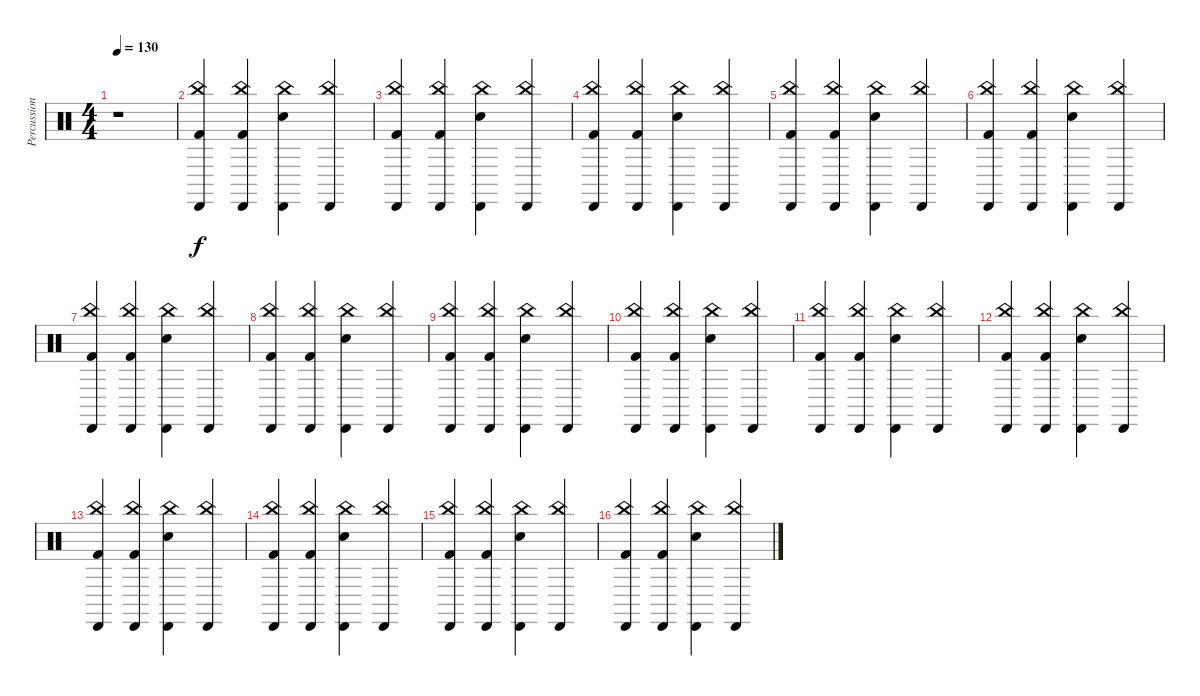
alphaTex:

\track ("Percussion" "Percussion") {instrument percussion}
\staff {score}
\articulation defaults
\ts (4 4)
\tempo 130
\clef neutral
\ks c
r.1{dy f} |
("Kick (hit) 2" "China (hit)" "Cabasa (hit)").4 ("Kick (hit) 2" "China (hit)" "Cabasa (hit)").4 ("Snare (hit) 2" "China (hit)" "Cabasa (hit)").4 ("China (hit)" "Cabasa (hit)").4 |
("Kick (hit) 2" "China (hit)" "Cabasa (hit)").4 ("Kick (hit) 2" "China (hit)" "Cabasa (hit)").4 ("Snare (hit) 2" "China (hit)" "Cabasa (hit)").4 ("China (hit)" "Cabasa (hit)").4 |
("Kick (hit) 2" "China (hit)" "Cabasa (hit)").4 ("Kick (hit) 2" "China (hit)" "Cabasa (hit)").4 ("Snare (hit) 2" "China (hit)" "Cabasa (hit)").4 ("China (hit)" "Cabasa (hit)").4 |
("Kick (hit) 2" "China (hit)" "Cabasa (hit)").4 ("Kick (hit) 2" "China (hit)" "Cabasa (hit)").4 ("Snare (hit) 2" "China (hit)" "Cabasa (hit)").4 ("China (hit)" "Cabasa (hit)").4 |
("Kick (hit) 2" "China (hit)" "Cabasa (hit)").4 ("Kick (hit) 2" "China (hit)" "Cabasa (hit)").4 ("Snare (hit) 2" "China (hit)" "Cabasa (hit)").4 ("China (hit)" "Cabasa (hit)").4 |
("Kick (hit) 2" "China (hit)" "Cabasa (hit)").4 ("Kick (hit) 2" "China (hit)" "Cabasa (hit)").4 ("Snare (hit) 2" "China (hit)" "Cabasa (hit)").4 ("China (hit)" "Cabasa (hit)").4 |
("Kick (hit) 2" "China (hit)" "Cabasa (hit)").4 ("Kick (hit) 2" "China (hit)" "Cabasa (hit)").4 ("Snare (hit) 2" "China (hit)" "Cabasa (hit)").4 ("China (hit)" "Cabasa (hit)").4 |
("Kick (hit) 2" "China (hit)" "Cabasa (hit)").4 ("Kick (hit) 2" "China (hit)" "Cabasa (hit)").4 ("Snare (hit) 2" "China (hit)" "Cabasa (hit)").4 ("China (hit)" "Cabasa (hit)").4 |
("Kick (hit) 2" "China (hit)" "Cabasa (hit)").4 ("Kick (hit) 2" "China (hit)" "Cabasa (hit)").4 ("Snare (hit) 2" "China (hit)" "Cabasa (hit)").4 ("China (hit)" "Cabasa (hit)").4 |
("Kick (hit) 2" "China (hit)" "Cabasa (hit)").4 ("Kick (hit) 2" "China (hit)" "Cabasa (hit)").4 ("Snare (hit) 2" "China (hit)" "Cabasa (hit)").4 ("China (hit)" "Cabasa (hit)").4 |
("Kick (hit) 2" "China (hit)" "Cabasa (hit)").4 ("Kick (hit) 2" "China (hit)" "Cabasa (hit)").4 ("Snare (hit) 2" "China (hit)" "Cabasa (hit)").4 ("China (hit)" "Cabasa (hit)").4 |
("Kick (hit) 2" "China (hit)" "Cabasa (hit)").4 ("Kick (hit) 2" "China (hit)" "Cabasa (hit)").4 ("Snare (hit) 2" "China (hit)" "Cabasa (hit)").4 ("China (hit)" "Cabasa (hit)").4 |
("Kick (hit) 2" "China (hit)" "Cabasa (hit)").4 ("Kick (hit) 2" "China (hit)" "Cabasa (hit)").4 ("Snare (hit) 2" "China (hit)" "Cabasa (hit)").4 ("China (hit)" "Cabasa (hit)").4 |
("Kick (hit) 2" "China (hit)" "Cabasa (hit)").4 ("Kick (hit) 2" "China (hit)" "Cabasa (hit)").4 ("Snare (hit) 2" "China (hit)" "Cabasa (hit)").4 ("China (hit)" "Cabasa (hit)").4 |
("Kick (hit) 2" "China (hit)" "Cabasa (hit)").4 ("Kick (hit) 2" "China (hit)" "Cabasa (hit)").4 ("Snare (hit) 2" "China (hit)" "Cabasa (hit)").4 ("China (hit)" "Cabasa (hit)").4
